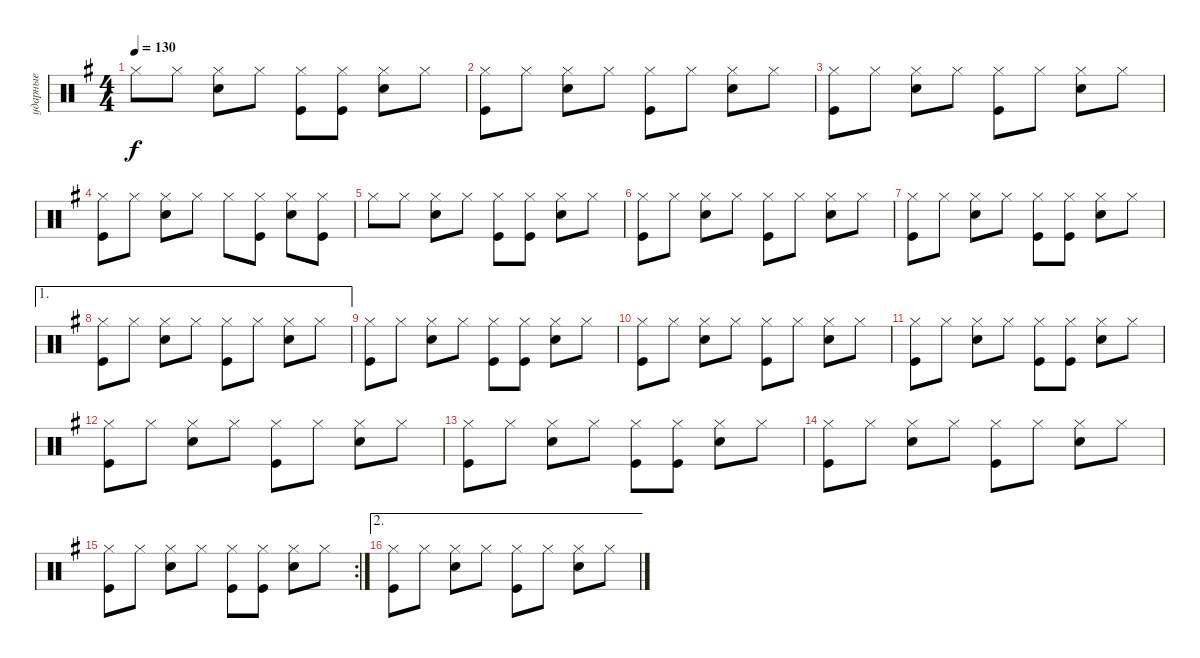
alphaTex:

\track ("ударные" "ударные") {instrument percussion}
\staff {score}
\articulation defaults
\ts (4 4)
\tempo 130
\clef neutral
\ks eminor "Hi-Hat (closed)".8{dy f} "Hi-Hat (closed)".8
("Snare (hit) 2" "Hi-Hat (closed)").8 "Hi-Hat (closed)".8 ("Kick (hit)" "Hi-Hat (closed)").8 ("Hi-Hat (closed)" "Kick (hit)").8 ("Snare (hit) 2" "Hi-Hat (closed)").8 "Hi-Hat (closed)".8 |
("Kick (hit)" "Hi-Hat (closed)").8 "Hi-Hat (closed)".8 ("Snare (hit) 2" "Hi-Hat (closed)").8 "Hi-Hat (closed)".8 ("Kick (hit)" "Hi-Hat (closed)").8 "Hi-Hat (closed)".8 ("Snare (hit) 2" "Hi-Hat (closed)").8 "Hi-Hat (closed)".8 |
("Kick (hit)" "Hi-Hat (closed)").8 "Hi-Hat (closed)".8 ("Snare (hit) 2" "Hi-Hat (closed)").8 "Hi-Hat (closed)".8 ("Kick (hit)" "Hi-Hat (closed)").8 "Hi-Hat (closed)".8 ("Snare (hit) 2" "Hi-Hat (closed)").8 "Hi-Hat (closed)".8 |
("Kick (hit)" "Hi-Hat (closed)").8 "Hi-Hat (closed)".8 ("Snare (hit) 2" "Hi-Hat (closed)").8 "Hi-Hat (closed)".8 "Hi-Hat (closed)".8 ("Hi-Hat (closed)" "Kick (hit)").8 ("Snare (hit) 2" "Hi-Hat (closed)").8 ("Hi-Hat (closed)" "Kick (hit)").8 |
"Hi-Hat (closed)".8 "Hi-Hat (closed)".8 ("Snare (hit) 2" "Hi-Hat (closed)").8 "Hi-Hat (closed)".8 ("Kick (hit)" "Hi-Hat (closed)").8 ("Hi-Hat (closed)" "Kick (hit)").8 ("Snare (hit) 2" "Hi-Hat (closed)").8 "Hi-Hat (closed)".8 |
("Kick (hit)" "Hi-Hat (closed)").8 "Hi-Hat (closed)".8 ("Snare (hit) 2" "Hi-Hat (closed)").8 "Hi-Hat (closed)".8 ("Kick (hit)" "Hi-Hat (closed)").8 "Hi-Hat (closed)".8 ("Snare (hit) 2" "Hi-Hat (closed)").8 "Hi-Hat (closed)".8 |
("Kick (hit)" "Hi-Hat (closed)").8 "Hi-Hat (closed)".8 ("Snare (hit) 2" "Hi-Hat (closed)").8 "Hi-Hat (closed)".8 ("Kick (hit)" "Hi-Hat (closed)").8 ("Hi-Hat (closed)" "Kick (hit)").8 ("Snare (hit) 2" "Hi-Hat (closed)").8 "Hi-Hat (closed)".8 |
\ae 1
("Kick (hit)" "Hi-Hat (closed)").8 "Hi-Hat (closed)".8 ("Snare (hit) 2" "Hi-Hat (closed)").8 "Hi-Hat (closed)".8 ("Kick (hit)" "Hi-Hat (closed)").8 "Hi-Hat (closed)".8 ("Snare (hit) 2" "Hi-Hat (closed)").8 "Hi-Hat (closed)".8 |
("Kick (hit)" "Hi-Hat (closed)").8 "Hi-Hat (closed)".8 ("Snare (hit) 2" "Hi-Hat (closed)").8 "Hi-Hat (closed)".8 ("Kick (hit)" "Hi-Hat (closed)").8 ("Hi-Hat (closed)" "Kick (hit)").8 ("Snare (hit) 2" "Hi-Hat (closed)").8 "Hi-Hat (closed)".8 |
("Kick (hit)" "Hi-Hat (closed)").8 "Hi-Hat (closed)".8 ("Snare (hit) 2" "Hi-Hat (closed)").8 "Hi-Hat (closed)".8 ("Kick (hit)" "Hi-Hat (closed)").8 "Hi-Hat (closed)".8 ("Snare (hit) 2" "Hi-Hat (closed)").8 "Hi-Hat (closed)".8 |
("Kick (hit)" "Hi-Hat (closed)").8 "Hi-Hat (closed)".8 ("Snare (hit) 2" "Hi-Hat (closed)").8 "Hi-Hat (closed)".8 ("Kick (hit)" "Hi-Hat (closed)").8 ("Hi-Hat (closed)" "Kick (hit)").8 ("Snare (hit) 2" "Hi-Hat (closed)").8 "Hi-Hat (closed)".8 |
("Kick (hit)" "Hi-Hat (closed)").8 "Hi-Hat (closed)".8 ("Snare (hit) 2" "Hi-Hat (closed)").8 "Hi-Hat (closed)".8 ("Kick (hit)" "Hi-Hat (closed)").8 "Hi-Hat (closed)".8 ("Snare (hit) 2" "Hi-Hat (closed)").8 "Hi-Hat (closed)".8 |
("Kick (hit)" "Hi-Hat (closed)").8 "Hi-Hat (closed)".8 ("Snare (hit) 2" "Hi-Hat (closed)").8 "Hi-Hat (closed)".8 ("Kick (hit)" "Hi-Hat (closed)").8 ("Hi-Hat (closed)" "Kick (hit)").8 ("Snare (hit) 2" "Hi-Hat (closed)").8 "Hi-Hat (closed)".8 |
("Kick (hit)" "Hi-Hat (closed)").8 "Hi-Hat (closed)".8 ("Snare (hit) 2" "Hi-Hat (closed)").8 "Hi-Hat (closed)".8 ("Kick (hit)" "Hi-Hat (closed)").8 "Hi-Hat (closed)".8 ("Snare (hit) 2" "Hi-Hat (closed)").8 "Hi-Hat (closed)".8 |
\rc 2
("Kick (hit)" "Hi-Hat (closed)").8 "Hi-Hat (closed)".8 ("Snare (hit) 2" "Hi-Hat (closed)").8 "Hi-Hat (closed)".8 ("Kick (hit)" "Hi-Hat (closed)").8 ("Hi-Hat (closed)" "Kick (hit)").8 ("Snare (hit) 2" "Hi-Hat (closed)").8 "Hi-Hat (closed)".8 |
\ae 2
("Kick (hit)" "Hi-Hat (closed)").8 "Hi-Hat (closed)".8 ("Snare (hit) 2" "Hi-Hat (closed)").8 "Hi-Hat (closed)".8 ("Kick (hit)" "Hi-Hat (closed)").8 "Hi-Hat (closed)".8 ("Snare (hit) 2" "Hi-Hat (closed)").8 "Hi-Hat (closed)".8
